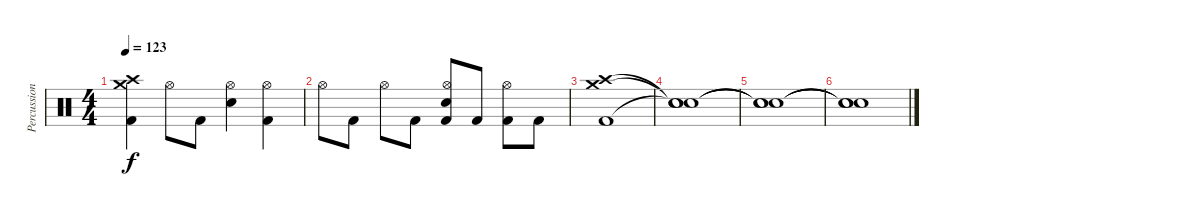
\track ("Percussion" "Percussion") {instrument percussion}
\staff {score}
\articulation defaults
\ts (4 4)
\tempo 123
\clef neutral
\ks c
("Crash high (hit)" "Crash medium (hit)" "Kick (hit) 2").4{dy f} "Hi-Hat (open)".8 "Kick (hit) 2".8 ("Hi-Hat (open)" "Electric Snare (hit)").4 ("Hi-Hat (open)" "Kick (hit) 2").4 |
"Hi-Hat (open)".8 "Kick (hit) 2".8 "Hi-Hat (open)".8 "Kick (hit) 2".8 ("Hi-Hat (open)" "Electric Snare (hit)" "Kick (hit) 2").8 "Kick (hit) 2".8 ("Hi-Hat (open)" "Kick (hit) 2").8 "Kick (hit) 2".8 |
("Crash high (hit)" "Crash medium (hit)" "Kick (hit) 2").1 |
("Snare (hit)"{t} "Snare (hit)"{t} "Snare (hit)"{t}).1 |
("Snare (hit)"{t} "Snare (hit)"{t} "Snare (hit)"{t}).1 |
("Snare (hit)"{t} "Snare (hit)"{t} "Snare (hit)"{t}).1
